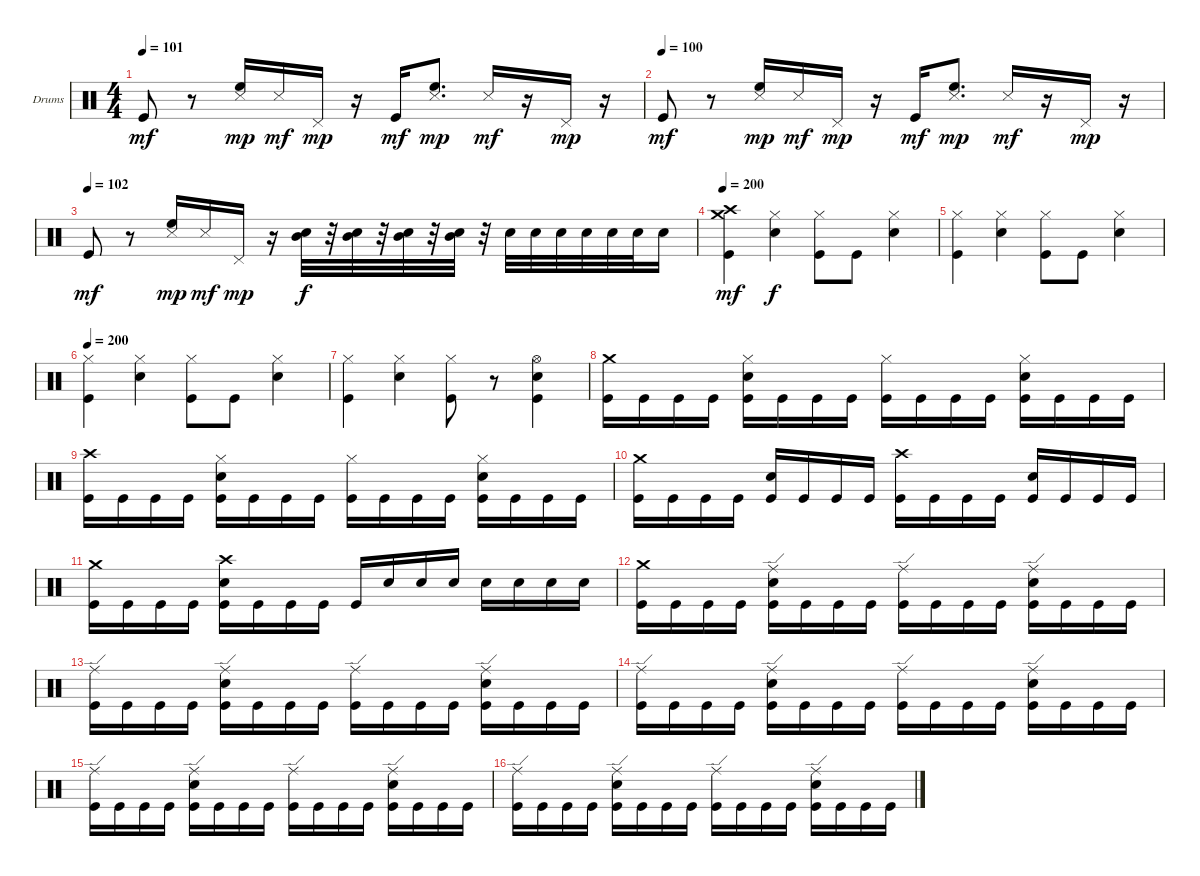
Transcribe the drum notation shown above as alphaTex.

\bracketExtendMode groupsimilarinstruments
\firstSystemTrackNameOrientation horizontal
\otherSystemsTrackNameOrientation horizontal
\track ("Drumkit" "Drums") {instrument percussion}
\staff {score}
\articulation defaults
\ts (4 4)
\tempo 101
\clef neutral
\ks c "Kick (hit)".8{dy mf}
r.8 ("High Floor Tom (hit)" "Snare (side stick) 3").16{dy mp} "Snare (side stick) 3".16{dy mf} "Pedal Hi-Hat (hit)".16{dy mp} r.16 "Kick (hit)".16{dy mf} ("High Floor Tom (hit)" "Snare (side stick) 3").8{d dy mp} "Snare (side stick) 3".16{dy mf} r.16 "Pedal Hi-Hat (hit)".16{dy mp} r.16 |
\tempo (100)
"Kick (hit)".8{dy mf} r.8 ("High Floor Tom (hit)" "Snare (side stick) 3").16{dy mp} "Snare (side stick) 3".16{dy mf} "Pedal Hi-Hat (hit)".16{dy mp} r.16 "Kick (hit)".16{dy mf} ("High Floor Tom (hit)" "Snare (side stick) 3").8{d dy mp} "Snare (side stick) 3".16{dy mf} r.16 "Pedal Hi-Hat (hit)".16{dy mp} r.16 |
\tempo (102)
"Kick (hit)".8{dy mf} r.8 ("High Floor Tom (hit)" "Snare (side stick) 3").16{dy mp} "Snare (side stick) 3".16{dy mf} "Pedal Hi-Hat (hit)".16{dy mp} r.16 ("Snare (hit) 2" "Mid Tom (hit)").32{dy f} r.32 ("Snare (hit) 2" "Mid Tom (hit)").32 r.32 ("Snare (hit) 2" "Mid Tom (hit)").32 r.32 ("Snare (hit) 2" "Mid Tom (hit)").32 r.32 "Snare (hit) 2".32 "Snare (hit) 2".32 "Snare (hit) 2".32 "Snare (hit) 2".32 "Snare (hit) 2".32 "Snare (hit) 2".32 "Snare (hit) 2".16 |
\tempo 200
("Crash medium (hit)" "Crash high (hit)" "Kick (hit)").4{dy mf} ("Hi-Hat (closed)" "Snare (hit) 2").4{dy f} ("Hi-Hat (closed)" "Kick (hit)").8 "Kick (hit)".8 ("Hi-Hat (closed)" "Snare (hit) 2").4 |
("Hi-Hat (closed)" "Kick (hit)").4 ("Hi-Hat (closed)" "Snare (hit) 2").4 ("Hi-Hat (closed)" "Kick (hit)").8 "Kick (hit)".8 ("Hi-Hat (closed)" "Snare (hit) 2").4 |
\tempo 200
("Hi-Hat (closed)" "Kick (hit)").4 ("Hi-Hat (closed)" "Snare (hit) 2").4 ("Hi-Hat (closed)" "Kick (hit)").8 "Kick (hit)".8 ("Hi-Hat (closed)" "Snare (hit) 2").4 |
("Hi-Hat (closed)" "Kick (hit)").4 ("Hi-Hat (closed)" "Snare (hit) 2").4 ("Hi-Hat (closed)" "Kick (hit)").8 r.8 ("Hi-Hat (open)" "Snare (hit) 2" "Kick (hit)").4 |
("Crash medium (hit)" "Kick (hit)").16 "Kick (hit)".16 "Kick (hit)".16 "Kick (hit)".16 ("Hi-Hat (closed)" "Snare (hit) 2" "Kick (hit)").16 "Kick (hit)".16 "Kick (hit)".16 "Kick (hit)".16 ("Hi-Hat (closed)" "Kick (hit)").16 "Kick (hit)".16 "Kick (hit)".16 "Kick (hit)".16 ("Hi-Hat (closed)" "Snare (hit) 2" "Kick (hit)").16 "Kick (hit)".16 "Kick (hit)".16 "Kick (hit)".16 |
("Crash high (hit)" "Kick (hit)").16 "Kick (hit)".16 "Kick (hit)".16 "Kick (hit)".16 ("Hi-Hat (closed)" "Snare (hit) 2" "Kick (hit)").16 "Kick (hit)".16 "Kick (hit)".16 "Kick (hit)".16 ("Hi-Hat (closed)" "Kick (hit)").16 "Kick (hit)".16 "Kick (hit)".16 "Kick (hit)".16 ("Hi-Hat (closed)" "Snare (hit) 2" "Kick (hit)").16 "Kick (hit)".16 "Kick (hit)".16 "Kick (hit)".16 |
("Crash medium (hit)" "Kick (hit)").16 "Kick (hit)".16 "Kick (hit)".16 "Kick (hit)".16 ("Snare (hit) 2" "Kick (hit)").16 "Kick (hit)".16 "Kick (hit)".16 "Kick (hit)".16 ("Crash high (hit)" "Kick (hit)").16 "Kick (hit)".16 "Kick (hit)".16 "Kick (hit)".16 ("Snare (hit) 2" "Kick (hit)").16 "Kick (hit)".16 "Kick (hit)".16 "Kick (hit)".16 |
("Crash medium (hit)" "Kick (hit)").16 "Kick (hit)".16 "Kick (hit)".16 "Kick (hit)".16 ("Crash high (hit)" "Snare (hit) 2" "Kick (hit)").16 "Kick (hit)".16 "Kick (hit)".16 "Kick (hit)".16 "Kick (hit)".16 "Snare (hit) 2".16 "Snare (hit) 2".16 "Snare (hit) 2".16 "Snare (hit) 2".16 "Snare (hit) 2".16 "Snare (hit) 2".16 "Snare (hit) 2".16 |
("Crash medium (hit)" "Kick (hit)").16 "Kick (hit)".16 "Kick (hit)".16 "Kick (hit)".16 ("Ride (edge)" "Snare (hit) 2" "Kick (hit)").16 "Kick (hit)".16 "Kick (hit)".16 "Kick (hit)".16 ("Ride (edge)" "Kick (hit)").16 "Kick (hit)".16 "Kick (hit)".16 "Kick (hit)".16 ("Ride (edge)" "Snare (hit) 2" "Kick (hit)").16 "Kick (hit)".16 "Kick (hit)".16 "Kick (hit)".16 |
("Ride (edge)" "Kick (hit)").16 "Kick (hit)".16 "Kick (hit)".16 "Kick (hit)".16 ("Ride (edge)" "Snare (hit) 2" "Kick (hit)").16 "Kick (hit)".16 "Kick (hit)".16 "Kick (hit)".16 ("Ride (edge)" "Kick (hit)").16 "Kick (hit)".16 "Kick (hit)".16 "Kick (hit)".16 ("Ride (edge)" "Snare (hit) 2" "Kick (hit)").16 "Kick (hit)".16 "Kick (hit)".16 "Kick (hit)".16 |
("Ride (edge)" "Kick (hit)").16 "Kick (hit)".16 "Kick (hit)".16 "Kick (hit)".16 ("Ride (edge)" "Snare (hit) 2" "Kick (hit)").16 "Kick (hit)".16 "Kick (hit)".16 "Kick (hit)".16 ("Ride (edge)" "Kick (hit)").16 "Kick (hit)".16 "Kick (hit)".16 "Kick (hit)".16 ("Ride (edge)" "Snare (hit) 2" "Kick (hit)").16 "Kick (hit)".16 "Kick (hit)".16 "Kick (hit)".16 |
("Ride (edge)" "Kick (hit)").16 "Kick (hit)".16 "Kick (hit)".16 "Kick (hit)".16 ("Ride (edge)" "Snare (hit) 2" "Kick (hit)").16 "Kick (hit)".16 "Kick (hit)".16 "Kick (hit)".16 ("Ride (edge)" "Kick (hit)").16 "Kick (hit)".16 "Kick (hit)".16 "Kick (hit)".16 ("Ride (edge)" "Snare (hit) 2" "Kick (hit)").16 "Kick (hit)".16 "Kick (hit)".16 "Kick (hit)".16 |
("Ride (edge)" "Kick (hit)").16 "Kick (hit)".16 "Kick (hit)".16 "Kick (hit)".16 ("Ride (edge)" "Snare (hit) 2" "Kick (hit)").16 "Kick (hit)".16 "Kick (hit)".16 "Kick (hit)".16 ("Ride (edge)" "Kick (hit)").16 "Kick (hit)".16 "Kick (hit)".16 "Kick (hit)".16 ("Ride (edge)" "Snare (hit) 2" "Kick (hit)").16 "Kick (hit)".16 "Kick (hit)".16 "Kick (hit)".16
